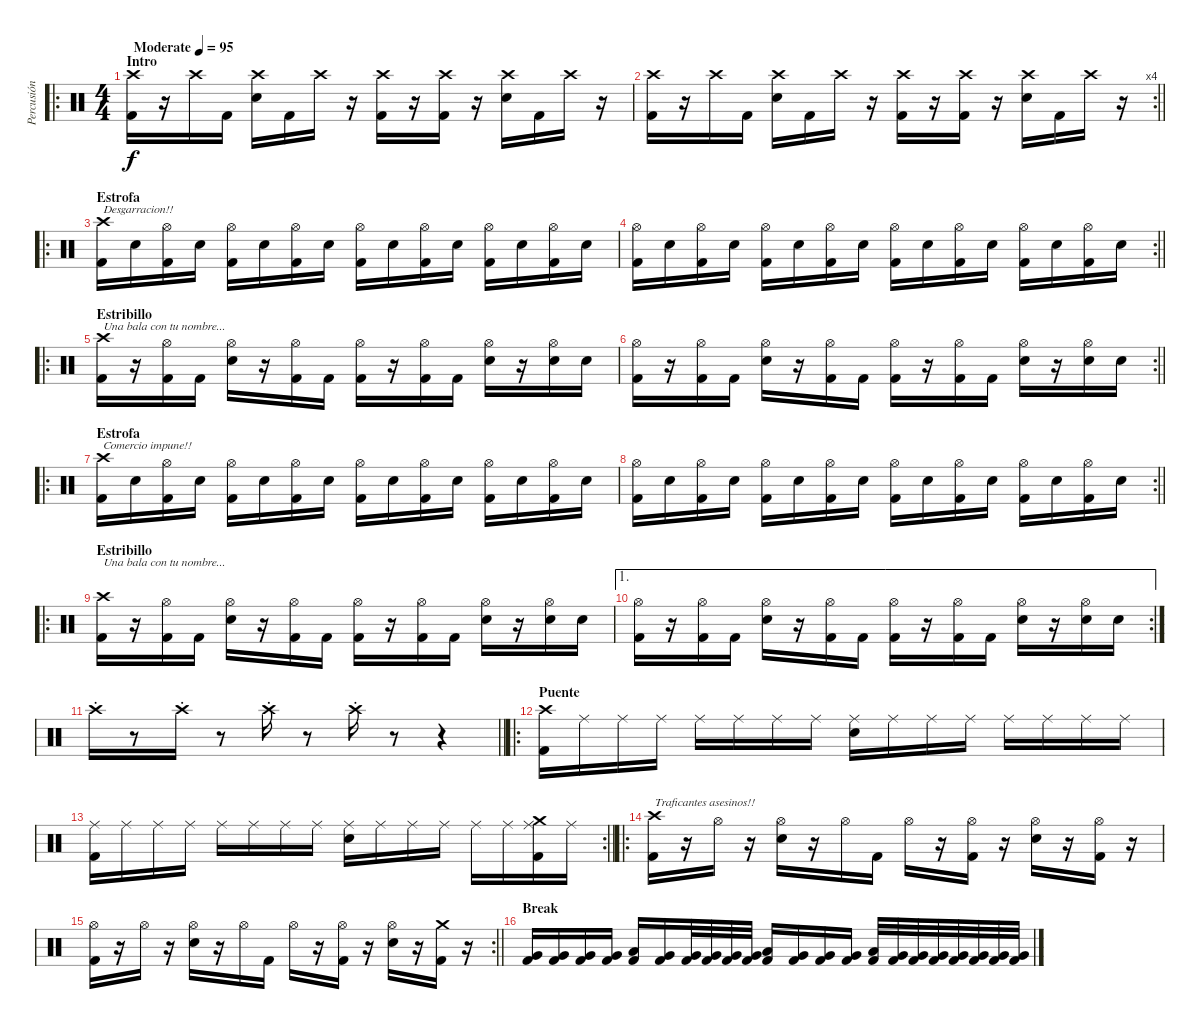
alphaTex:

\track ("Percusión" "Percusión") {instrument percussion}
\staff {score}
\articulation defaults
\ro
\ts (4 4)
\section ("" "Intro")
\tempo (95 "Moderate")
\clef neutral
\ks c
("Crash high (hit)" "Kick (hit) 2").16{dy f} r.16 "Crash high (hit)".16 "Kick (hit) 2".16 ("Crash high (hit)" "Electric Snare (hit)").16 "Kick (hit) 2".16 "Crash high (hit)".16 r.16 ("Crash high (hit)" "Kick (hit) 2").16 r.16 ("Crash high (hit)" "Kick (hit) 2").16 r.16 ("Crash high (hit)" "Electric Snare (hit)").16 "Kick (hit) 2".16 "Crash high (hit)".16 r.16 |
\rc 4
\barLineRight lightlight
("Crash high (hit)" "Kick (hit) 2").16 r.16 "Crash high (hit)".16 "Kick (hit) 2".16 ("Crash high (hit)" "Electric Snare (hit)").16 "Kick (hit) 2".16 "Crash high (hit)".16 r.16 ("Crash high (hit)" "Kick (hit) 2").16 r.16 ("Crash high (hit)" "Kick (hit) 2").16 r.16 ("Crash high (hit)" "Electric Snare (hit)").16 "Kick (hit) 2".16 "Crash high (hit)".16 r.16 |
\ro
\section ("" "Estrofa")
("Crash high (hit)" "Kick (hit) 2").16{txt "Desgarracion!!"} "Electric Snare (hit)".16 ("Hi-Hat (open)" "Kick (hit) 2").16 "Electric Snare (hit)".16 ("Hi-Hat (open)" "Kick (hit) 2").16 "Electric Snare (hit)".16 ("Hi-Hat (open)" "Kick (hit) 2").16 "Electric Snare (hit)".16 ("Hi-Hat (open)" "Kick (hit) 2").16 "Electric Snare (hit)".16 ("Hi-Hat (open)" "Kick (hit) 2").16 "Electric Snare (hit)".16 ("Hi-Hat (open)" "Kick (hit) 2").16 "Electric Snare (hit)".16 ("Hi-Hat (open)" "Kick (hit) 2").16 "Electric Snare (hit)".16 |
\rc 2
\barLineRight lightlight
("Hi-Hat (open)" "Kick (hit) 2").16 "Electric Snare (hit)".16 ("Hi-Hat (open)" "Kick (hit) 2").16 "Electric Snare (hit)".16 ("Hi-Hat (open)" "Kick (hit) 2").16 "Electric Snare (hit)".16 ("Hi-Hat (open)" "Kick (hit) 2").16 "Electric Snare (hit)".16 ("Hi-Hat (open)" "Kick (hit) 2").16 "Electric Snare (hit)".16 ("Hi-Hat (open)" "Kick (hit) 2").16 "Electric Snare (hit)".16 ("Hi-Hat (open)" "Kick (hit) 2").16 "Electric Snare (hit)".16 ("Hi-Hat (open)" "Kick (hit) 2").16 "Electric Snare (hit)".16 |
\ro
\section ("" "Estribillo")
("Crash high (hit)" "Kick (hit) 2").16{txt "Una bala con tu nombre..."} r.16 ("Hi-Hat (open)" "Kick (hit) 2").16 "Kick (hit) 2".16 ("Hi-Hat (open)" "Electric Snare (hit)").16 r.16 ("Hi-Hat (open)" "Kick (hit) 2").16 "Kick (hit) 2".16 ("Hi-Hat (open)" "Kick (hit) 2").16 r.16 ("Hi-Hat (open)" "Kick (hit) 2").16 "Kick (hit) 2".16 ("Hi-Hat (open)" "Electric Snare (hit)").16 r.16 ("Hi-Hat (open)" "Electric Snare (hit)").16 "Electric Snare (hit)".16 |
\rc 2
\barLineRight lightlight
("Hi-Hat (open)" "Kick (hit) 2").16 r.16 ("Hi-Hat (open)" "Kick (hit) 2").16 "Kick (hit) 2".16 ("Hi-Hat (open)" "Electric Snare (hit)").16 r.16 ("Hi-Hat (open)" "Kick (hit) 2").16 "Kick (hit) 2".16 ("Hi-Hat (open)" "Kick (hit) 2").16 r.16 ("Hi-Hat (open)" "Kick (hit) 2").16 "Kick (hit) 2".16 ("Hi-Hat (open)" "Electric Snare (hit)").16 r.16 ("Hi-Hat (open)" "Electric Snare (hit)").16 "Electric Snare (hit)".16 |
\ro
\section ("" "Estrofa")
("Crash high (hit)" "Kick (hit) 2").16{txt "Comercio impune!!"} "Electric Snare (hit)".16 ("Hi-Hat (open)" "Kick (hit) 2").16 "Electric Snare (hit)".16 ("Hi-Hat (open)" "Kick (hit) 2").16 "Electric Snare (hit)".16 ("Hi-Hat (open)" "Kick (hit) 2").16 "Electric Snare (hit)".16 ("Hi-Hat (open)" "Kick (hit) 2").16 "Electric Snare (hit)".16 ("Hi-Hat (open)" "Kick (hit) 2").16 "Electric Snare (hit)".16 ("Hi-Hat (open)" "Kick (hit) 2").16 "Electric Snare (hit)".16 ("Hi-Hat (open)" "Kick (hit) 2").16 "Electric Snare (hit)".16 |
\rc 2
\barLineRight lightlight
("Hi-Hat (open)" "Kick (hit) 2").16 "Electric Snare (hit)".16 ("Hi-Hat (open)" "Kick (hit) 2").16 "Electric Snare (hit)".16 ("Hi-Hat (open)" "Kick (hit) 2").16 "Electric Snare (hit)".16 ("Hi-Hat (open)" "Kick (hit) 2").16 "Electric Snare (hit)".16 ("Hi-Hat (open)" "Kick (hit) 2").16 "Electric Snare (hit)".16 ("Hi-Hat (open)" "Kick (hit) 2").16 "Electric Snare (hit)".16 ("Hi-Hat (open)" "Kick (hit) 2").16 "Electric Snare (hit)".16 ("Hi-Hat (open)" "Kick (hit) 2").16 "Electric Snare (hit)".16 |
\ro
\section ("" "Estribillo")
("Crash high (hit)" "Kick (hit) 2").16{txt "Una bala con tu nombre..."} r.16 ("Hi-Hat (open)" "Kick (hit) 2").16 "Kick (hit) 2".16 ("Hi-Hat (open)" "Electric Snare (hit)").16 r.16 ("Hi-Hat (open)" "Kick (hit) 2").16 "Kick (hit) 2".16 ("Hi-Hat (open)" "Kick (hit) 2").16 r.16 ("Hi-Hat (open)" "Kick (hit) 2").16 "Kick (hit) 2".16 ("Hi-Hat (open)" "Electric Snare (hit)").16 r.16 ("Hi-Hat (open)" "Electric Snare (hit)").16 "Electric Snare (hit)".16 |
\ae 1
\rc 2
("Hi-Hat (open)" "Kick (hit) 2").16 r.16 ("Hi-Hat (open)" "Kick (hit) 2").16 "Kick (hit) 2".16 ("Hi-Hat (open)" "Electric Snare (hit)").16 r.16 ("Hi-Hat (open)" "Kick (hit) 2").16 "Kick (hit) 2".16 ("Hi-Hat (open)" "Kick (hit) 2").16 r.16 ("Hi-Hat (open)" "Kick (hit) 2").16 "Kick (hit) 2".16 ("Hi-Hat (open)" "Electric Snare (hit)").16 r.16 ("Hi-Hat (open)" "Electric Snare (hit)").16 "Electric Snare (hit)".16 |
\barLineRight lightlight "Crash high (hit)"{st}.16
r.8 "Crash high (hit)"{st}.16 r.8 "Crash high (hit)"{st}.16 r.8 "Crash high (hit)"{st}.16 r.8 r.4 |
\ro
\section ("" "Puente")
("Crash high (hit)" "Kick (hit) 2").16 "Ride (middle)".16 "Ride (middle)".16 "Ride (middle)".16 "Ride (middle)".16 "Ride (middle)".16 "Ride (middle)".16 "Ride (middle)".16 ("Ride (middle)" "Electric Snare (hit)").16 "Ride (middle)".16 "Ride (middle)".16 "Ride (middle)".16 "Ride (middle)".16 "Ride (middle)".16 "Ride (middle)".16 "Ride (middle)".16 |
\rc 2
\barLineRight lightlight
("Ride (middle)" "Kick (hit) 2").16 "Ride (middle)".16 "Ride (middle)".16 "Ride (middle)".16 "Ride (middle)".16 "Ride (middle)".16 "Ride (middle)".16 "Ride (middle)".16 ("Ride (middle)" "Electric Snare (hit)").16 "Ride (middle)".16 "Ride (middle)".16 "Ride (middle)".16 "Ride (middle)".16 "Ride (middle)".16 ("Crash medium (hit)" "Ride (middle)" "Kick (hit) 2").16 "Ride (middle)".16 |
\ro
("Crash high (hit)" "Kick (hit) 2").16{txt "Traficantes asesinos!!"} r.16 "Hi-Hat (open)".16 r.16 ("Hi-Hat (open)" "Electric Snare (hit)").16 r.16 "Hi-Hat (open)".16 "Kick (hit) 2".16 "Hi-Hat (open)".16 r.16 ("Hi-Hat (open)" "Kick (hit) 2").16 r.16 ("Hi-Hat (open)" "Electric Snare (hit)").16 r.16 ("Hi-Hat (open)" "Kick (hit) 2").16 r.16 |
\rc 2
\barLineRight lightlight
("Hi-Hat (open)" "Kick (hit) 2").16 r.16 "Hi-Hat (open)".16 r.16 ("Hi-Hat (open)" "Electric Snare (hit)").16 r.16 "Hi-Hat (open)".16 "Kick (hit) 2".16 "Hi-Hat (open)".16 r.16 ("Hi-Hat (open)" "Kick (hit) 2").16 r.16 ("Hi-Hat (open)" "Electric Snare (hit)").16 r.16 ("Crash medium (hit)" "Kick (hit) 2").16 r.16 |
\section ("" "Break")
("Very Low Tom (hit)" "Kick (hit) 2").16 ("Very Low Tom (hit)" "Kick (hit) 2").16 ("Very Low Tom (hit)" "Kick (hit) 2").16 ("Very Low Tom (hit)" "Kick (hit) 2").16 ("Low Floor Tom (hit)" "Kick (hit) 2").16 ("Very Low Tom (hit)" "Kick (hit) 2").16 ("Very Low Tom (hit)" "Kick (hit) 2").32 ("Very Low Tom (hit)" "Kick (hit) 2").32 ("Very Low Tom (hit)" "Kick (hit) 2").32 ("Very Low Tom (hit)" "Kick (hit) 2").32 ("Low Floor Tom (hit)" "Kick (hit) 2").16 ("Very Low Tom (hit)" "Kick (hit) 2").16 ("Very Low Tom (hit)" "Kick (hit) 2").16 ("Very Low Tom (hit)" "Kick (hit) 2").16 ("Low Floor Tom (hit)" "Kick (hit) 2").32 ("Very Low Tom (hit)" "Kick (hit) 2").32 ("Very Low Tom (hit)" "Kick (hit) 2").32 ("Very Low Tom (hit)" "Kick (hit) 2").32 ("Very Low Tom (hit)" "Kick (hit) 2").32 ("Very Low Tom (hit)" "Kick (hit) 2").32 ("Very Low Tom (hit)" "Kick (hit) 2").32 ("Very Low Tom (hit)" "Kick (hit) 2").32
